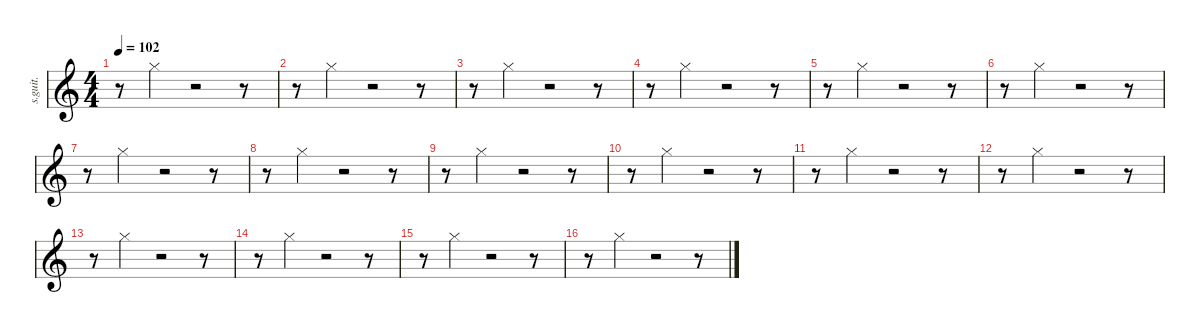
\defaultSystemsLayout 4
\hideDynamics
\bracketExtendMode nobrackets
\track ("Hi Hat" "s.guit.") {instrument percussion}
\staff {score}
\articulation defaults
\ts (4 4)
\tempo 102
\clef g2
\ks c
r.8{dy f} "Hi-Hat (closed)".4 r.2 r.8 |
r.8 "Hi-Hat (closed)".4 r.2 r.8 |
r.8 "Hi-Hat (closed)".4 r.2 r.8 |
r.8 "Hi-Hat (closed)".4 r.2 r.8 |
r.8 "Hi-Hat (closed)".4 r.2 r.8 |
r.8 "Hi-Hat (closed)".4 r.2 r.8 |
r.8 "Hi-Hat (closed)".4 r.2 r.8 |
r.8 "Hi-Hat (closed)".4 r.2 r.8 |
r.8 "Hi-Hat (closed)".4 r.2 r.8 |
r.8 "Hi-Hat (closed)".4 r.2 r.8 |
r.8 "Hi-Hat (closed)".4 r.2 r.8 |
r.8 "Hi-Hat (closed)".4 r.2 r.8 |
r.8 "Hi-Hat (closed)".4 r.2 r.8 |
r.8 "Hi-Hat (closed)".4 r.2 r.8 |
r.8 "Hi-Hat (closed)".4 r.2 r.8 |
r.8 "Hi-Hat (closed)".4 r.2 r.8
